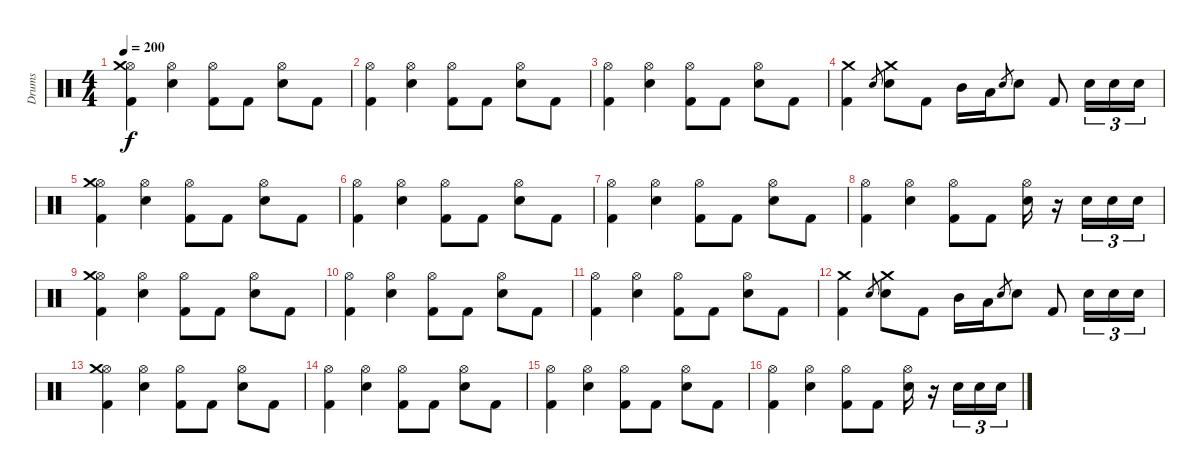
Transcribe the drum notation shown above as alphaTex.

\track ("Drums" "Drums") {instrument percussion}
\staff {score}
\articulation defaults
\ts (4 4)
\tempo 200
\clef neutral
\ks c
("Hi-Hat (open)" "Crash medium (hit)" "Kick (hit) 2").4{dy f} ("Hi-Hat (open)" "Snare (hit) 2").4 ("Hi-Hat (open)" "Kick (hit) 2").8 "Kick (hit) 2".8 ("Hi-Hat (open)" "Snare (hit) 2").8 "Kick (hit) 2".8 |
("Hi-Hat (open)" "Kick (hit) 2").4 ("Hi-Hat (open)" "Snare (hit) 2").4 ("Hi-Hat (open)" "Kick (hit) 2").8 "Kick (hit) 2".8 ("Hi-Hat (open)" "Snare (hit) 2").8 "Kick (hit) 2".8 |
("Hi-Hat (open)" "Kick (hit) 2").4 ("Hi-Hat (open)" "Snare (hit) 2").4 ("Hi-Hat (open)" "Kick (hit) 2").8 "Kick (hit) 2".8 ("Hi-Hat (open)" "Snare (hit) 2").8 "Kick (hit) 2".8 |
("Crash medium (hit)" "Kick (hit) 2").4 "Snare (hit) 2".8{gr} ("Crash medium (hit)" "Snare (hit) 2").8 "Kick (hit) 2".8 "Mid Tom (hit)".16 "Low Tom (hit)".16 "Snare (hit) 2".8{gr} "Snare (hit) 2".8 "Kick (hit) 2".8 "Snare (hit) 2".16{tu (3 2)} "Snare (hit) 2".16{tu (3 2)} "Snare (hit) 2".16{tu (3 2)} |
("Hi-Hat (open)" "Crash medium (hit)" "Kick (hit) 2").4 ("Hi-Hat (open)" "Snare (hit) 2").4 ("Hi-Hat (open)" "Kick (hit) 2").8 "Kick (hit) 2".8 ("Hi-Hat (open)" "Snare (hit) 2").8 "Kick (hit) 2".8 |
("Hi-Hat (open)" "Kick (hit) 2").4 ("Hi-Hat (open)" "Snare (hit) 2").4 ("Hi-Hat (open)" "Kick (hit) 2").8 "Kick (hit) 2".8 ("Hi-Hat (open)" "Snare (hit) 2").8 "Kick (hit) 2".8 |
("Hi-Hat (open)" "Kick (hit) 2").4 ("Hi-Hat (open)" "Snare (hit) 2").4 ("Hi-Hat (open)" "Kick (hit) 2").8 "Kick (hit) 2".8 ("Hi-Hat (open)" "Snare (hit) 2").8 "Kick (hit) 2".8 |
("Hi-Hat (open)" "Kick (hit) 2").4 ("Hi-Hat (open)" "Snare (hit) 2").4 ("Hi-Hat (open)" "Kick (hit) 2").8 "Kick (hit) 2".8 ("Hi-Hat (open)" "Snare (hit) 2").16 r.16 "Snare (hit) 2".16{tu (3 2)} "Snare (hit) 2".16{tu (3 2)} "Snare (hit) 2".16{tu (3 2)} |
("Hi-Hat (open)" "Crash medium (hit)" "Kick (hit) 2").4 ("Hi-Hat (open)" "Snare (hit) 2").4 ("Hi-Hat (open)" "Kick (hit) 2").8 "Kick (hit) 2".8 ("Hi-Hat (open)" "Snare (hit) 2").8 "Kick (hit) 2".8 |
("Hi-Hat (open)" "Kick (hit) 2").4 ("Hi-Hat (open)" "Snare (hit) 2").4 ("Hi-Hat (open)" "Kick (hit) 2").8 "Kick (hit) 2".8 ("Hi-Hat (open)" "Snare (hit) 2").8 "Kick (hit) 2".8 |
("Hi-Hat (open)" "Kick (hit) 2").4 ("Hi-Hat (open)" "Snare (hit) 2").4 ("Hi-Hat (open)" "Kick (hit) 2").8 "Kick (hit) 2".8 ("Hi-Hat (open)" "Snare (hit) 2").8 "Kick (hit) 2".8 |
("Crash medium (hit)" "Kick (hit) 2").4 "Snare (hit) 2".8{gr} ("Crash medium (hit)" "Snare (hit) 2").8 "Kick (hit) 2".8 "Mid Tom (hit)".16 "Low Tom (hit)".16 "Snare (hit) 2".8{gr} "Snare (hit) 2".8 "Kick (hit) 2".8 "Snare (hit) 2".16{tu (3 2)} "Snare (hit) 2".16{tu (3 2)} "Snare (hit) 2".16{tu (3 2)} |
("Hi-Hat (open)" "Crash medium (hit)" "Kick (hit) 2").4 ("Hi-Hat (open)" "Snare (hit) 2").4 ("Hi-Hat (open)" "Kick (hit) 2").8 "Kick (hit) 2".8 ("Hi-Hat (open)" "Snare (hit) 2").8 "Kick (hit) 2".8 |
("Hi-Hat (open)" "Kick (hit) 2").4 ("Hi-Hat (open)" "Snare (hit) 2").4 ("Hi-Hat (open)" "Kick (hit) 2").8 "Kick (hit) 2".8 ("Hi-Hat (open)" "Snare (hit) 2").8 "Kick (hit) 2".8 |
("Hi-Hat (open)" "Kick (hit) 2").4 ("Hi-Hat (open)" "Snare (hit) 2").4 ("Hi-Hat (open)" "Kick (hit) 2").8 "Kick (hit) 2".8 ("Hi-Hat (open)" "Snare (hit) 2").8 "Kick (hit) 2".8 |
("Hi-Hat (open)" "Kick (hit) 2").4 ("Hi-Hat (open)" "Snare (hit) 2").4 ("Hi-Hat (open)" "Kick (hit) 2").8 "Kick (hit) 2".8 ("Hi-Hat (open)" "Snare (hit) 2").16 r.16 "Snare (hit) 2".16{tu (3 2)} "Snare (hit) 2".16{tu (3 2)} "Snare (hit) 2".16{tu (3 2)}
